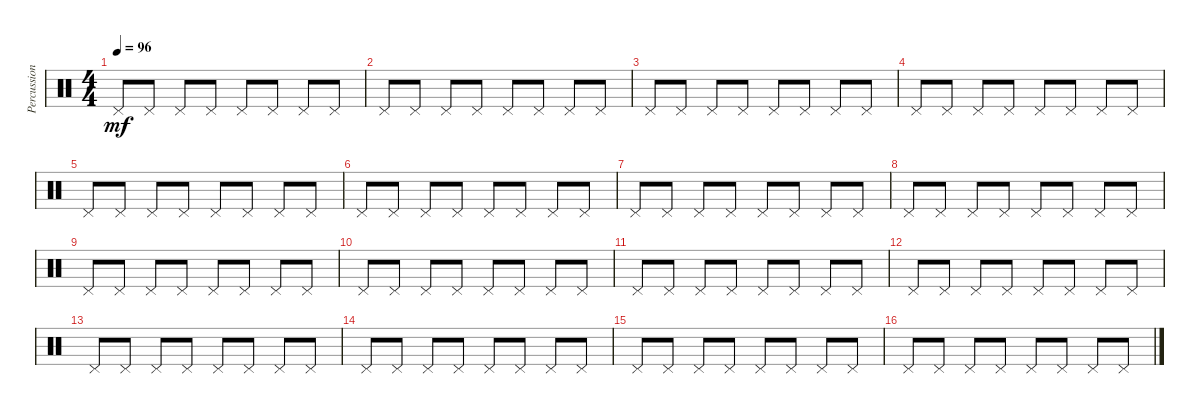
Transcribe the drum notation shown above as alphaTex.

\track ("Percussion" "Percussion") {instrument percussion}
\staff {score}
\articulation defaults
\ts (4 4)
\tempo 96
\clef neutral
\ks c "Pedal Hi-Hat (hit)".8{dy mf} "Pedal Hi-Hat (hit)".8 "Pedal Hi-Hat (hit)".8 "Pedal Hi-Hat (hit)".8 "Pedal Hi-Hat (hit)".8 "Pedal Hi-Hat (hit)".8 "Pedal Hi-Hat (hit)".8 "Pedal Hi-Hat (hit)".8
|
"Pedal Hi-Hat (hit)".8 "Pedal Hi-Hat (hit)".8 "Pedal Hi-Hat (hit)".8 "Pedal Hi-Hat (hit)".8 "Pedal Hi-Hat (hit)".8 "Pedal Hi-Hat (hit)".8 "Pedal Hi-Hat (hit)".8 "Pedal Hi-Hat (hit)".8 |
"Pedal Hi-Hat (hit)".8 "Pedal Hi-Hat (hit)".8 "Pedal Hi-Hat (hit)".8 "Pedal Hi-Hat (hit)".8 "Pedal Hi-Hat (hit)".8 "Pedal Hi-Hat (hit)".8 "Pedal Hi-Hat (hit)".8 "Pedal Hi-Hat (hit)".8 |
"Pedal Hi-Hat (hit)".8 "Pedal Hi-Hat (hit)".8 "Pedal Hi-Hat (hit)".8 "Pedal Hi-Hat (hit)".8 "Pedal Hi-Hat (hit)".8 "Pedal Hi-Hat (hit)".8 "Pedal Hi-Hat (hit)".8 "Pedal Hi-Hat (hit)".8 |
"Pedal Hi-Hat (hit)".8 "Pedal Hi-Hat (hit)".8 "Pedal Hi-Hat (hit)".8 "Pedal Hi-Hat (hit)".8 "Pedal Hi-Hat (hit)".8 "Pedal Hi-Hat (hit)".8 "Pedal Hi-Hat (hit)".8 "Pedal Hi-Hat (hit)".8 |
"Pedal Hi-Hat (hit)".8 "Pedal Hi-Hat (hit)".8 "Pedal Hi-Hat (hit)".8 "Pedal Hi-Hat (hit)".8 "Pedal Hi-Hat (hit)".8 "Pedal Hi-Hat (hit)".8 "Pedal Hi-Hat (hit)".8 "Pedal Hi-Hat (hit)".8 |
"Pedal Hi-Hat (hit)".8 "Pedal Hi-Hat (hit)".8 "Pedal Hi-Hat (hit)".8 "Pedal Hi-Hat (hit)".8 "Pedal Hi-Hat (hit)".8 "Pedal Hi-Hat (hit)".8 "Pedal Hi-Hat (hit)".8 "Pedal Hi-Hat (hit)".8 |
"Pedal Hi-Hat (hit)".8 "Pedal Hi-Hat (hit)".8 "Pedal Hi-Hat (hit)".8 "Pedal Hi-Hat (hit)".8 "Pedal Hi-Hat (hit)".8 "Pedal Hi-Hat (hit)".8 "Pedal Hi-Hat (hit)".8 "Pedal Hi-Hat (hit)".8 |
"Pedal Hi-Hat (hit)".8 "Pedal Hi-Hat (hit)".8 "Pedal Hi-Hat (hit)".8 "Pedal Hi-Hat (hit)".8 "Pedal Hi-Hat (hit)".8 "Pedal Hi-Hat (hit)".8 "Pedal Hi-Hat (hit)".8 "Pedal Hi-Hat (hit)".8 |
"Pedal Hi-Hat (hit)".8 "Pedal Hi-Hat (hit)".8 "Pedal Hi-Hat (hit)".8 "Pedal Hi-Hat (hit)".8 "Pedal Hi-Hat (hit)".8 "Pedal Hi-Hat (hit)".8 "Pedal Hi-Hat (hit)".8 "Pedal Hi-Hat (hit)".8 |
"Pedal Hi-Hat (hit)".8 "Pedal Hi-Hat (hit)".8 "Pedal Hi-Hat (hit)".8 "Pedal Hi-Hat (hit)".8 "Pedal Hi-Hat (hit)".8 "Pedal Hi-Hat (hit)".8 "Pedal Hi-Hat (hit)".8 "Pedal Hi-Hat (hit)".8 |
"Pedal Hi-Hat (hit)".8 "Pedal Hi-Hat (hit)".8 "Pedal Hi-Hat (hit)".8 "Pedal Hi-Hat (hit)".8 "Pedal Hi-Hat (hit)".8 "Pedal Hi-Hat (hit)".8 "Pedal Hi-Hat (hit)".8 "Pedal Hi-Hat (hit)".8 |
"Pedal Hi-Hat (hit)".8 "Pedal Hi-Hat (hit)".8 "Pedal Hi-Hat (hit)".8 "Pedal Hi-Hat (hit)".8 "Pedal Hi-Hat (hit)".8 "Pedal Hi-Hat (hit)".8 "Pedal Hi-Hat (hit)".8 "Pedal Hi-Hat (hit)".8 |
"Pedal Hi-Hat (hit)".8 "Pedal Hi-Hat (hit)".8 "Pedal Hi-Hat (hit)".8 "Pedal Hi-Hat (hit)".8 "Pedal Hi-Hat (hit)".8 "Pedal Hi-Hat (hit)".8 "Pedal Hi-Hat (hit)".8 "Pedal Hi-Hat (hit)".8 |
"Pedal Hi-Hat (hit)".8 "Pedal Hi-Hat (hit)".8 "Pedal Hi-Hat (hit)".8 "Pedal Hi-Hat (hit)".8 "Pedal Hi-Hat (hit)".8 "Pedal Hi-Hat (hit)".8 "Pedal Hi-Hat (hit)".8 "Pedal Hi-Hat (hit)".8 |
"Pedal Hi-Hat (hit)".8 "Pedal Hi-Hat (hit)".8 "Pedal Hi-Hat (hit)".8 "Pedal Hi-Hat (hit)".8 "Pedal Hi-Hat (hit)".8 "Pedal Hi-Hat (hit)".8 "Pedal Hi-Hat (hit)".8 "Pedal Hi-Hat (hit)".8
